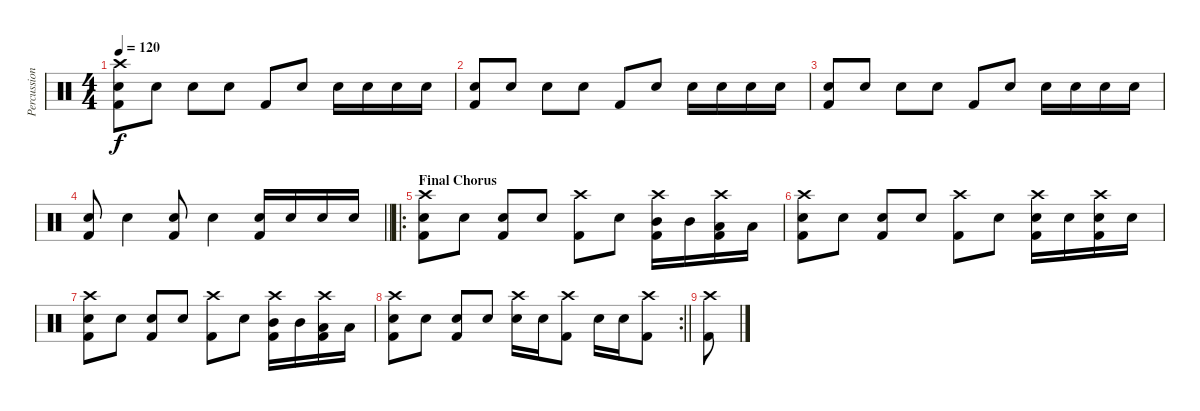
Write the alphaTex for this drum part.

\track ("Percussion" "Percussion") {instrument percussion}
\staff {score}
\articulation defaults
\ts (4 4)
\tempo 120
\clef neutral
\ks c
("Crash high (hit)" "Snare (hit) 2" "Kick (hit) 2").8{dy f} "Snare (hit) 2".8 "Snare (hit) 2".8 "Snare (hit) 2".8 "Kick (hit) 2".8 "Snare (hit) 2".8 "Snare (hit) 2".16 "Snare (hit) 2".16 "Snare (hit) 2".16 "Snare (hit) 2".16 |
("Snare (hit) 2" "Kick (hit) 2").8 "Snare (hit) 2".8 "Snare (hit) 2".8 "Snare (hit) 2".8 "Kick (hit) 2".8 "Snare (hit) 2".8 "Snare (hit) 2".16 "Snare (hit) 2".16 "Snare (hit) 2".16 "Snare (hit) 2".16 |
("Snare (hit) 2" "Kick (hit) 2").8 "Snare (hit) 2".8 "Snare (hit) 2".8 "Snare (hit) 2".8 "Kick (hit) 2".8 "Snare (hit) 2".8 "Snare (hit) 2".16 "Snare (hit) 2".16 "Snare (hit) 2".16 "Snare (hit) 2".16 |
\barLineRight lightlight
("Snare (hit) 2" "Kick (hit) 2").8 "Snare (hit) 2".4 ("Snare (hit) 2" "Kick (hit) 2").8 "Snare (hit) 2".4 ("Snare (hit) 2" "Kick (hit) 2").16 "Snare (hit) 2".16 "Snare (hit) 2".16 "Snare (hit) 2".16 |
\ro
\section ("" "Final Chorus")
("Crash high (hit)" "Snare (hit) 2" "Kick (hit) 2").8 "Snare (hit) 2".8 ("Snare (hit) 2" "Kick (hit) 2").8 "Snare (hit) 2".8 ("Crash high (hit)" "Kick (hit) 2").8 "Snare (hit) 2".8 ("Crash high (hit)" "Mid Tom (hit)" "Kick (hit) 2").16 "Mid Tom (hit)".16 ("Crash high (hit)" "Low Tom (hit)" "Kick (hit) 2").16 "Low Tom (hit)".16 |
("Crash high (hit)" "Snare (hit) 2" "Kick (hit) 2").8 "Snare (hit) 2".8 ("Snare (hit) 2" "Kick (hit) 2").8 "Snare (hit) 2".8 ("Crash high (hit)" "Kick (hit) 2").8 "Snare (hit) 2".8 ("Crash high (hit)" "Snare (hit) 2" "Kick (hit) 2").16 "Snare (hit) 2".16 ("Crash high (hit)" "Snare (hit) 2" "Kick (hit) 2").16 "Snare (hit) 2".16 |
("Crash high (hit)" "Snare (hit) 2" "Kick (hit) 2").8 "Snare (hit) 2".8 ("Snare (hit) 2" "Kick (hit) 2").8 "Snare (hit) 2".8 ("Crash high (hit)" "Kick (hit) 2").8 "Snare (hit) 2".8 ("Crash high (hit)" "Mid Tom (hit)" "Kick (hit) 2").16 "Mid Tom (hit)".16 ("Crash high (hit)" "Low Tom (hit)" "Kick (hit) 2").16 "Low Tom (hit)".16 |
\rc 2
\barLineRight lightlight
("Crash high (hit)" "Snare (hit) 2" "Kick (hit) 2").8 "Snare (hit) 2".8 ("Snare (hit) 2" "Kick (hit) 2").8 "Snare (hit) 2".8 ("Crash high (hit)" "Snare (hit) 2").16 "Snare (hit) 2".16 ("Crash high (hit)" "Kick (hit) 2").8 "Snare (hit) 2".16 "Snare (hit) 2".16 ("Crash high (hit)" "Kick (hit) 2").8 |
("Crash high (hit)" "Kick (hit) 2").8
